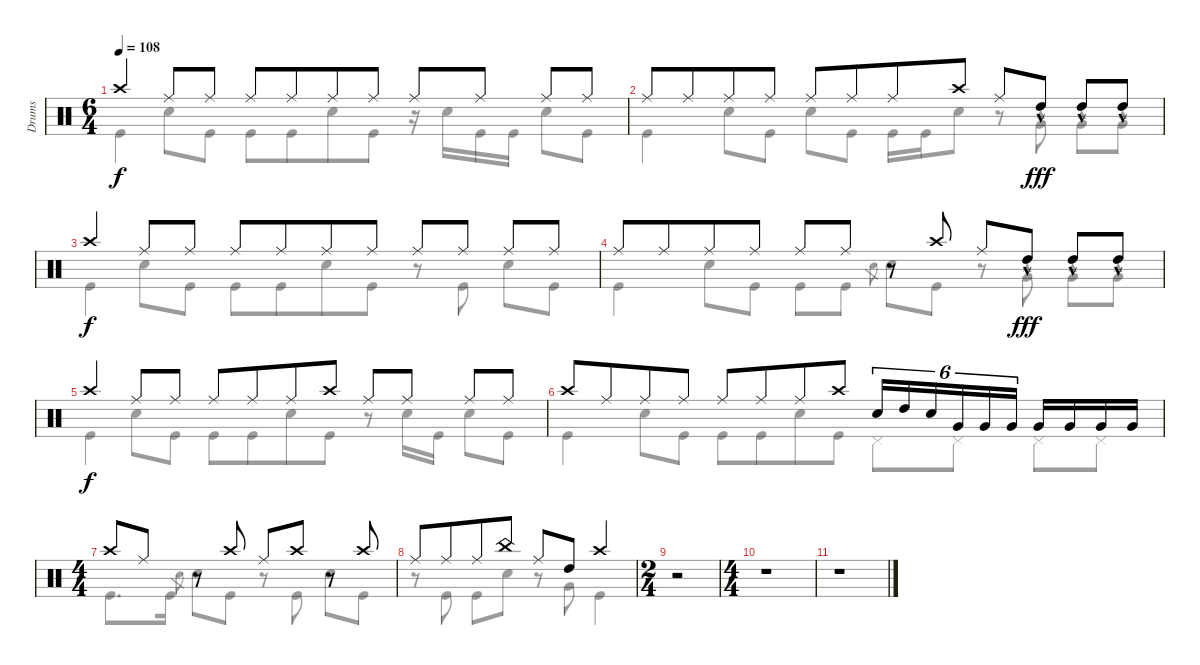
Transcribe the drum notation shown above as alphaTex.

\track ("Drums" "Drums") {instrument percussion}
\staff {score}
\articulation defaults
\voice
\ts (6 4)
\tempo 108
\clef neutral
\ks c "Crash high (hit)".4{dy f beam Up} "Ride (middle)".8{beam Up} "Ride (middle)".8{beam Up beam split} "Ride (middle)".8{beam Up} "Ride (middle)".8{beam Up beam merge} "Ride (middle)".8{beam Up} "Ride (middle)".8{beam Up beam split} "Ride (middle)".8{beam Up} "Ride (middle)".8{beam Up} "Ride (middle)".8{beam Up} "Ride (middle)".8{beam Up}
|
"Ride (middle)".8{beam Up} "Ride (middle)".8{beam Up beam merge} "Ride (middle)".8{beam Up} "Ride (middle)".8{beam Up beam split} "Ride (middle)".8{beam Up} "Ride (middle)".8{beam Up beam merge} "Ride (middle)".8{beam Up} "Crash high (hit)".8{beam Up beam split} "Ride (middle)".8{beam Up} "High Tom (hit)"{hac}.8{dy fff beam Up} "High Tom (hit)"{hac}.8{beam Up} "High Tom (hit)"{hac}.8{beam Up} |
"Crash high (hit)".4{dy f beam Up} "Ride (middle)".8{beam Up} "Ride (middle)".8{beam Up beam split} "Ride (middle)".8{beam Up} "Ride (middle)".8{beam Up beam merge} "Ride (middle)".8{beam Up} "Ride (middle)".8{beam Up beam split} "Ride (middle)".8{beam Up} "Ride (middle)".8{beam Up} "Ride (middle)".8{beam Up} "Ride (middle)".8{beam Up} |
"Ride (middle)".8{beam Up} "Ride (middle)".8{beam Up beam merge} "Ride (middle)".8{beam Up} "Ride (middle)".8{beam Up beam split} "Ride (middle)".8{beam Up} "Ride (middle)".8{beam Up} r.8 "Crash high (hit)".8{beam Up beam split} "Ride (middle)".8{beam Up} "High Tom (hit)"{hac}.8{dy fff beam Up} "High Tom (hit)"{hac}.8{beam Up} "High Tom (hit)"{hac}.8{beam Up} |
"Crash high (hit)".4{dy f beam Up} "Ride (middle)".8{beam Up} "Ride (middle)".8{beam Up beam split} "Ride (middle)".8{beam Up} "Ride (middle)".8{beam Up beam merge} "Ride (middle)".8{beam Up} "Crash high (hit)".8{beam Up beam split} "Ride (middle)".8{beam Up} "Ride (middle)".8{beam Up} "Ride (middle)".8{beam Up} "Ride (middle)".8{beam Up} |
"Crash high (hit)".8{beam Up} "Ride (middle)".8{beam Up beam merge} "Ride (middle)".8{beam Up} "Ride (middle)".8{beam Up beam split} "Ride (middle)".8{beam Up} "Ride (middle)".8{beam Up beam merge} "Ride (middle)".8{beam Up} "Crash high (hit)".8{beam Up beam split} "Snare (hit) 2".16{tu (6 4) beam Up} "High Tom (hit)".16{tu (6 4) beam Up} "Snare (hit) 2".16{tu (6 4) beam Up} "Very Low Tom (hit)".16{tu (6 4) beam Up} "Very Low Tom (hit)".16{tu (6 4) beam Up} "Very Low Tom (hit)".16{tu (6 4) beam Up beam split} "Very Low Tom (hit)".16{beam Up} "Very Low Tom (hit)".16{beam Up} "Very Low Tom (hit)".16{beam Up} "Very Low Tom (hit)".16{beam Up} |
\ts (4 4)
"Crash high (hit)".8{beam Up} "Ride (middle)".8{beam Up} r.8 "Crash high (hit)".8{beam Up beam split} "Ride (middle)".8{beam Up} "Crash high (hit)".8{beam Up} r.8 "Crash high (hit)".8{beam Up} |
"Ride (middle)".8{beam Up} "Ride (middle)".8{beam Up beam merge} "Ride (middle)".8{beam Up} "China (hit)".8{beam Up} "Ride (middle)".8{beam Up} "High Tom (hit)".8{beam Up} "Crash high (hit)".4{beam Up} |
\ts (2 4)
r.2 |
\ts (4 4)
r.1 |
r.1
\voice
\clef neutral
\ottava regular
\simile none
\ks c "Kick (hit)".4{dy f} "Snare (hit) 2".8 "Kick (hit)".8{beam split} "Kick (hit)".8{beam Down} "Kick (hit)".8{beam Down beam merge} "Snare (hit) 2".8 "Kick (hit)".8
r.16 "Snare (hit) 2".16 "Kick (hit)".16 "Kick (hit)".16{beam split} "Snare (hit) 2".8 "Kick (hit)".8 |
"Kick (hit)".4 "Snare (hit) 2".8 "Kick (hit)".8{beam split} "Snare (hit) 2".8 "Kick (hit)".8 "Kick (hit)".16 "Kick (hit)".16 "Snare (hit) 2".8 r.8 "Very Low Tom (hit)"{hac}.8{dy fff} "Very Low Tom (hit)"{hac}.8 "Very Low Tom (hit)"{hac}.8 |
"Kick (hit)".4{dy f} "Snare (hit) 2".8{beam Down} "Kick (hit)".8{beam Down beam split} "Kick (hit)".8{beam Down} "Kick (hit)".8{beam Down beam merge} "Snare (hit) 2".8 "Kick (hit)".8 r.8 "Kick (hit)".8 "Snare (hit) 2".8 "Kick (hit)".8 |
"Kick (hit)".4 "Snare (hit) 2".8{beam Down} "Kick (hit)".8{beam Down beam split} "Kick (hit)".8{beam Down} "Kick (hit)".8{beam Down} "Snare (hit) 2".8{gr beam merge} "Snare (hit) 2".8 "Kick (hit)".8 r.8 "Very Low Tom (hit)"{hac}.8{dy fff} "Very Low Tom (hit)"{hac}.8 "Very Low Tom (hit)"{hac}.8 |
"Kick (hit)".4{dy f} "Snare (hit) 2".8 "Kick (hit)".8{beam split} "Kick (hit)".8{beam Down} "Kick (hit)".8{beam Down beam merge} "Snare (hit) 2".8 "Kick (hit)".8 r.8 "Snare (hit) 2".16 "Kick (hit)".16{beam split} "Snare (hit) 2".8 "Kick (hit)".8 |
"Kick (hit)".4 "Snare (hit) 2".8 "Kick (hit)".8{beam split} "Kick (hit)".8{beam Down} "Kick (hit)".8{beam Down beam merge} "Snare (hit) 2".8 "Kick (hit)".8{beam split} "Pedal Hi-Hat (hit)".8 "Pedal Hi-Hat (hit)".8 "Pedal Hi-Hat (hit)".8 "Pedal Hi-Hat (hit)".8 |
"Kick (hit)".8{d} "Kick (hit)".16 "Snare (hit) 2".8{gr} "Snare (hit) 2".8 "Kick (hit)".8 r.8 "Kick (hit)".8{beam split} "Snare (hit) 2".8 "Kick (hit)".8 |
r.8 "Kick (hit)".8 "Kick (hit)".8 "Snare (hit) 2".8 r.8 "Very Low Tom (hit)".8 "Kick (hit)".4 |
|
|
